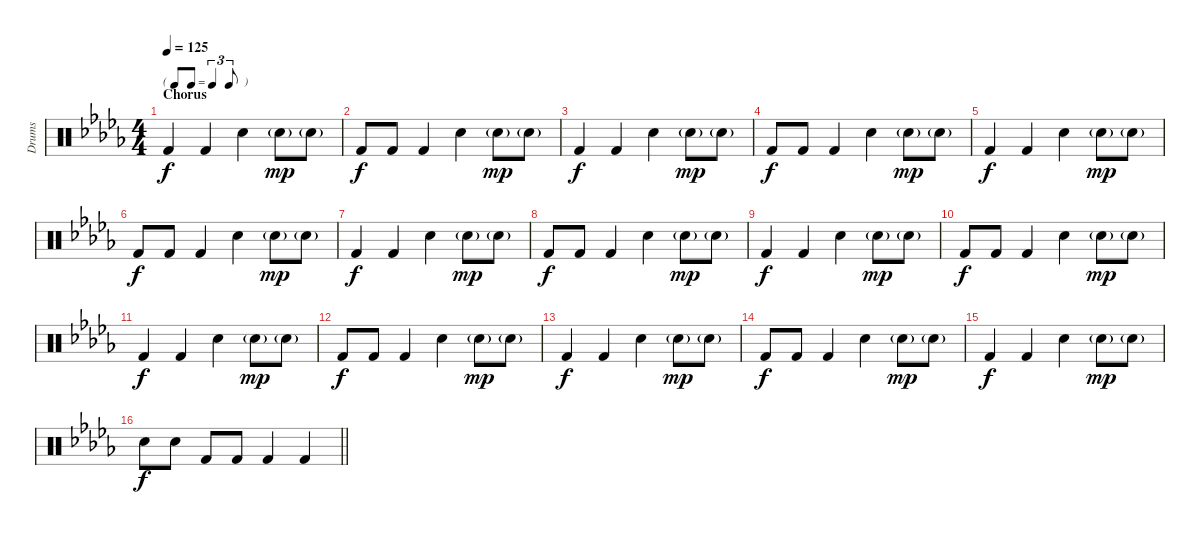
\track ("Drums" "Drums") {instrument percussion}
\staff {score}
\articulation defaults
\ts (4 4)
\tf triplet8th
\section ("" "Chorus")
\tempo 125
\clef neutral
\ks db "Kick (hit) 2".4{dy f} "Kick (hit) 2".4 "Snare (hit) 2".4 "Snare (hit) 2"{g}.8{dy mp} "Snare (hit) 2"{g}.8
|
"Kick (hit) 2".8{dy f} "Kick (hit) 2".8 "Kick (hit) 2".4 "Snare (hit) 2".4 "Snare (hit) 2"{g}.8{dy mp} "Snare (hit) 2"{g}.8 |
"Kick (hit) 2".4{dy f} "Kick (hit) 2".4 "Snare (hit) 2".4 "Snare (hit) 2"{g}.8{dy mp} "Snare (hit) 2"{g}.8 |
"Kick (hit) 2".8{dy f} "Kick (hit) 2".8 "Kick (hit) 2".4 "Snare (hit) 2".4 "Snare (hit) 2"{g}.8{dy mp} "Snare (hit) 2"{g}.8 |
"Kick (hit) 2".4{dy f} "Kick (hit) 2".4 "Snare (hit) 2".4 "Snare (hit) 2"{g}.8{dy mp} "Snare (hit) 2"{g}.8 |
"Kick (hit) 2".8{dy f} "Kick (hit) 2".8 "Kick (hit) 2".4 "Snare (hit) 2".4 "Snare (hit) 2"{g}.8{dy mp} "Snare (hit) 2"{g}.8 |
"Kick (hit) 2".4{dy f} "Kick (hit) 2".4 "Snare (hit) 2".4 "Snare (hit) 2"{g}.8{dy mp} "Snare (hit) 2"{g}.8 |
"Kick (hit) 2".8{dy f} "Kick (hit) 2".8 "Kick (hit) 2".4 "Snare (hit) 2".4 "Snare (hit) 2"{g}.8{dy mp} "Snare (hit) 2"{g}.8 |
"Kick (hit) 2".4{dy f} "Kick (hit) 2".4 "Snare (hit) 2".4 "Snare (hit) 2"{g}.8{dy mp} "Snare (hit) 2"{g}.8 |
"Kick (hit) 2".8{dy f} "Kick (hit) 2".8 "Kick (hit) 2".4 "Snare (hit) 2".4 "Snare (hit) 2"{g}.8{dy mp} "Snare (hit) 2"{g}.8 |
"Kick (hit) 2".4{dy f} "Kick (hit) 2".4 "Snare (hit) 2".4 "Snare (hit) 2"{g}.8{dy mp} "Snare (hit) 2"{g}.8 |
"Kick (hit) 2".8{dy f} "Kick (hit) 2".8 "Kick (hit) 2".4 "Snare (hit) 2".4 "Snare (hit) 2"{g}.8{dy mp} "Snare (hit) 2"{g}.8 |
"Kick (hit) 2".4{dy f} "Kick (hit) 2".4 "Snare (hit) 2".4 "Snare (hit) 2"{g}.8{dy mp} "Snare (hit) 2"{g}.8 |
"Kick (hit) 2".8{dy f} "Kick (hit) 2".8 "Kick (hit) 2".4 "Snare (hit) 2".4 "Snare (hit) 2"{g}.8{dy mp} "Snare (hit) 2"{g}.8 |
"Kick (hit) 2".4{dy f} "Kick (hit) 2".4 "Snare (hit) 2".4 "Snare (hit) 2"{g}.8{dy mp} "Snare (hit) 2"{g}.8 |
\barLineRight lightlight "Snare (hit) 2".8{dy f} "Snare (hit) 2".8 "Kick (hit) 2".8 "Kick (hit) 2".8 "Kick (hit) 2".4 "Kick (hit) 2".4
